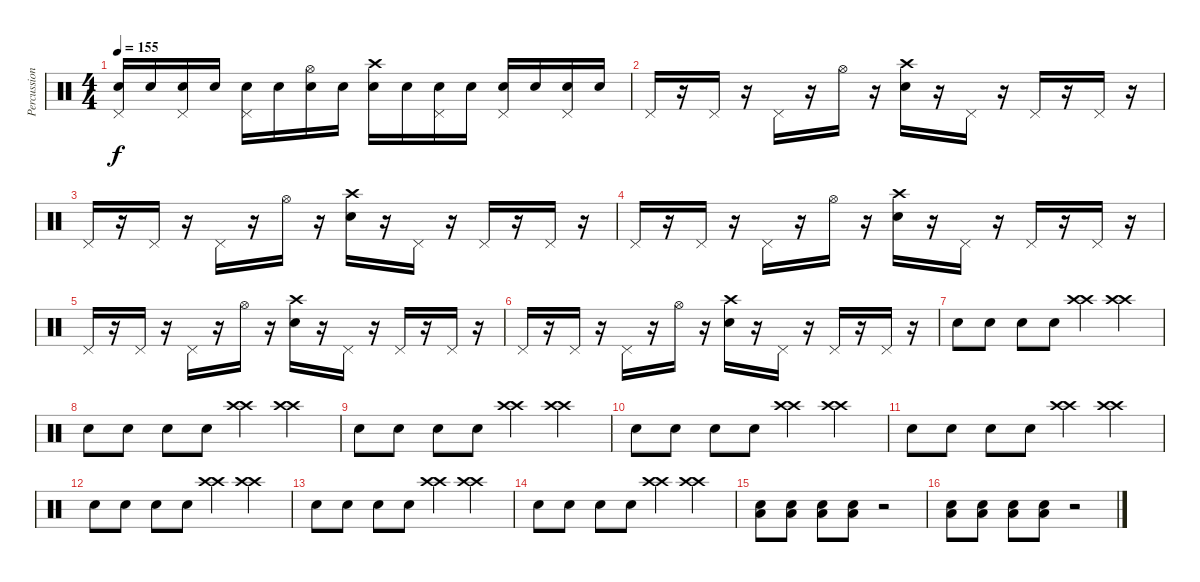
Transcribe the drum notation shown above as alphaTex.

\track ("Percussion" "Percussion") {instrument percussion}
\staff {score}
\articulation defaults
\ts (4 4)
\tempo 155
\clef neutral
\ks c
("Pedal Hi-Hat (hit)" "Electric Snare (hit)").16{dy f} "Electric Snare (hit)".16 ("Pedal Hi-Hat (hit)" "Electric Snare (hit)").16 "Electric Snare (hit)".16 ("Pedal Hi-Hat (hit)" "Electric Snare (hit)").16 "Electric Snare (hit)".16 ("Hi-Hat (open)" "Electric Snare (hit)").16 "Electric Snare (hit)".16 ("Crash high (hit)" "Electric Snare (hit)").16 "Electric Snare (hit)".16 ("Pedal Hi-Hat (hit)" "Electric Snare (hit)").16 "Electric Snare (hit)".16 ("Pedal Hi-Hat (hit)" "Electric Snare (hit)").16 "Electric Snare (hit)".16 ("Pedal Hi-Hat (hit)" "Electric Snare (hit)").16 "Electric Snare (hit)".16 |
"Pedal Hi-Hat (hit)".16 r.16 "Pedal Hi-Hat (hit)".16 r.16 "Pedal Hi-Hat (hit)".16 r.16 "Hi-Hat (open)".16 r.16 ("Crash high (hit)" "Electric Snare (hit)").16 r.16 "Pedal Hi-Hat (hit)".16 r.16 "Pedal Hi-Hat (hit)".16 r.16 "Pedal Hi-Hat (hit)".16 r.16 |
"Pedal Hi-Hat (hit)".16 r.16 "Pedal Hi-Hat (hit)".16 r.16 "Pedal Hi-Hat (hit)".16 r.16 "Hi-Hat (open)".16 r.16 ("Crash high (hit)" "Electric Snare (hit)").16 r.16 "Pedal Hi-Hat (hit)".16 r.16 "Pedal Hi-Hat (hit)".16 r.16 "Pedal Hi-Hat (hit)".16 r.16 |
"Pedal Hi-Hat (hit)".16 r.16 "Pedal Hi-Hat (hit)".16 r.16 "Pedal Hi-Hat (hit)".16 r.16 "Hi-Hat (open)".16 r.16 ("Crash high (hit)" "Electric Snare (hit)").16 r.16 "Pedal Hi-Hat (hit)".16 r.16 "Pedal Hi-Hat (hit)".16 r.16 "Pedal Hi-Hat (hit)".16 r.16 |
"Pedal Hi-Hat (hit)".16 r.16 "Pedal Hi-Hat (hit)".16 r.16 "Pedal Hi-Hat (hit)".16 r.16 "Hi-Hat (open)".16 r.16 ("Crash high (hit)" "Electric Snare (hit)").16 r.16 "Pedal Hi-Hat (hit)".16 r.16 "Pedal Hi-Hat (hit)".16 r.16 "Pedal Hi-Hat (hit)".16 r.16 |
"Pedal Hi-Hat (hit)".16 r.16 "Pedal Hi-Hat (hit)".16 r.16 "Pedal Hi-Hat (hit)".16 r.16 "Hi-Hat (open)".16 r.16 ("Crash high (hit)" "Electric Snare (hit)").16 r.16 "Pedal Hi-Hat (hit)".16 r.16 "Pedal Hi-Hat (hit)".16 r.16 "Pedal Hi-Hat (hit)".16 r.16 |
"Electric Snare (hit)".8 "Electric Snare (hit)".8 "Electric Snare (hit)".8 "Electric Snare (hit)".8 ("Crash high (hit)" "Crash high (hit)").4 ("Crash high (hit)" "Crash high (hit)").4 |
"Electric Snare (hit)".8 "Electric Snare (hit)".8 "Electric Snare (hit)".8 "Electric Snare (hit)".8 ("Crash high (hit)" "Crash high (hit)").4 ("Crash high (hit)" "Crash high (hit)").4 |
"Electric Snare (hit)".8 "Electric Snare (hit)".8 "Electric Snare (hit)".8 "Electric Snare (hit)".8 ("Crash high (hit)" "Crash high (hit)").4 ("Crash high (hit)" "Crash high (hit)").4 |
"Electric Snare (hit)".8 "Electric Snare (hit)".8 "Electric Snare (hit)".8 "Electric Snare (hit)".8 ("Crash high (hit)" "Crash high (hit)").4 ("Crash high (hit)" "Crash high (hit)").4 |
"Electric Snare (hit)".8 "Electric Snare (hit)".8 "Electric Snare (hit)".8 "Electric Snare (hit)".8 ("Crash high (hit)" "Crash high (hit)").4 ("Crash high (hit)" "Crash high (hit)").4 |
"Electric Snare (hit)".8 "Electric Snare (hit)".8 "Electric Snare (hit)".8 "Electric Snare (hit)".8 ("Crash high (hit)" "Crash high (hit)").4 ("Crash high (hit)" "Crash high (hit)").4 |
"Electric Snare (hit)".8 "Electric Snare (hit)".8 "Electric Snare (hit)".8 "Electric Snare (hit)".8 ("Crash high (hit)" "Crash high (hit)").4 ("Crash high (hit)" "Crash high (hit)").4 |
"Electric Snare (hit)".8 "Electric Snare (hit)".8 "Electric Snare (hit)".8 "Electric Snare (hit)".8 ("Crash high (hit)" "Crash high (hit)").4 ("Crash high (hit)" "Crash high (hit)").4 |
("Electric Snare (hit)" "Low Floor Tom (hit)").8 ("Electric Snare (hit)" "Low Floor Tom (hit)").8 ("Electric Snare (hit)" "Low Floor Tom (hit)").8 ("Electric Snare (hit)" "Low Floor Tom (hit)").8 r.2 |
("Electric Snare (hit)" "Low Floor Tom (hit)").8 ("Electric Snare (hit)" "Low Floor Tom (hit)").8 ("Electric Snare (hit)" "Low Floor Tom (hit)").8 ("Electric Snare (hit)" "Low Floor Tom (hit)").8 r.2
